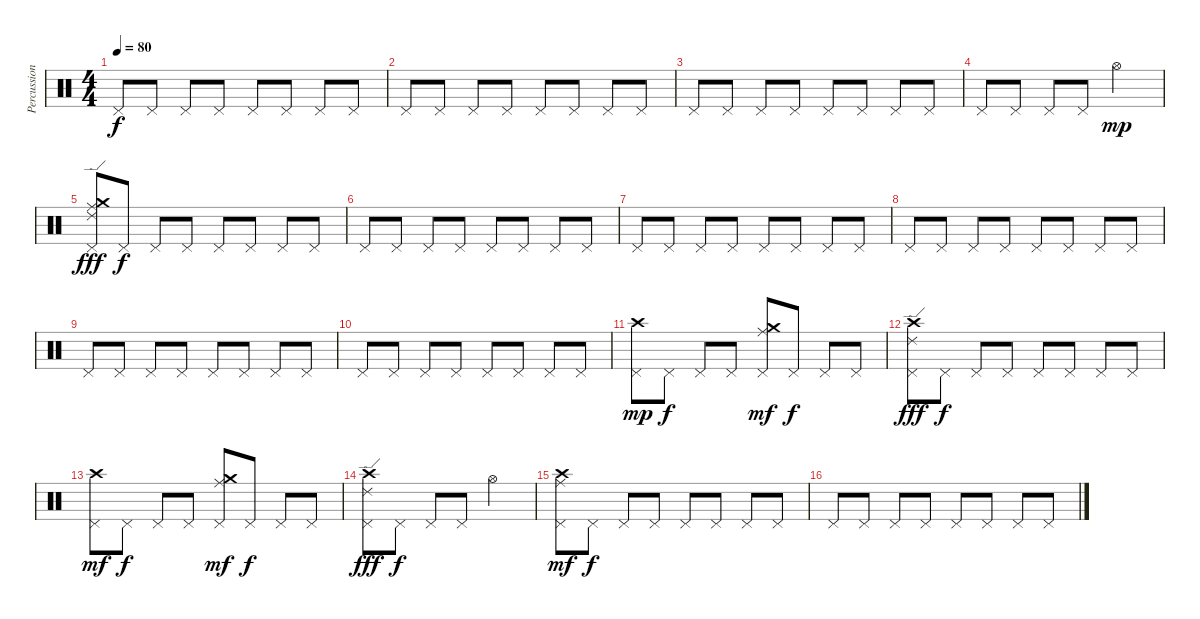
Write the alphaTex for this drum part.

\track ("Percussion" "Percussion") {instrument percussion}
\staff {score}
\articulation defaults
\ts (4 4)
\tempo 80
\clef neutral
\ks c "Pedal Hi-Hat (hit)".8{dy f} "Pedal Hi-Hat (hit)".8 "Pedal Hi-Hat (hit)".8 "Pedal Hi-Hat (hit)".8 "Pedal Hi-Hat (hit)".8 "Pedal Hi-Hat (hit)".8 "Pedal Hi-Hat (hit)".8 "Pedal Hi-Hat (hit)".8
|
"Pedal Hi-Hat (hit)".8 "Pedal Hi-Hat (hit)".8 "Pedal Hi-Hat (hit)".8 "Pedal Hi-Hat (hit)".8 "Pedal Hi-Hat (hit)".8 "Pedal Hi-Hat (hit)".8 "Pedal Hi-Hat (hit)".8 "Pedal Hi-Hat (hit)".8 |
"Pedal Hi-Hat (hit)".8 "Pedal Hi-Hat (hit)".8 "Pedal Hi-Hat (hit)".8 "Pedal Hi-Hat (hit)".8 "Pedal Hi-Hat (hit)".8 "Pedal Hi-Hat (hit)".8 "Pedal Hi-Hat (hit)".8 "Pedal Hi-Hat (hit)".8 |
"Pedal Hi-Hat (hit)".8 "Pedal Hi-Hat (hit)".8 "Pedal Hi-Hat (hit)".8 "Pedal Hi-Hat (hit)".8 "Hi-Hat (open)".2{dy mp} |
("Crash medium (hit)" "Ride (middle)" "Ride (edge) 2" "Pedal Hi-Hat (hit)").8{dy fff} "Pedal Hi-Hat (hit)".8{dy f} "Pedal Hi-Hat (hit)".8 "Pedal Hi-Hat (hit)".8 "Pedal Hi-Hat (hit)".8 "Pedal Hi-Hat (hit)".8 "Pedal Hi-Hat (hit)".8 "Pedal Hi-Hat (hit)".8 |
"Pedal Hi-Hat (hit)".8 "Pedal Hi-Hat (hit)".8 "Pedal Hi-Hat (hit)".8 "Pedal Hi-Hat (hit)".8 "Pedal Hi-Hat (hit)".8 "Pedal Hi-Hat (hit)".8 "Pedal Hi-Hat (hit)".8 "Pedal Hi-Hat (hit)".8 |
"Pedal Hi-Hat (hit)".8 "Pedal Hi-Hat (hit)".8 "Pedal Hi-Hat (hit)".8 "Pedal Hi-Hat (hit)".8 "Pedal Hi-Hat (hit)".8 "Pedal Hi-Hat (hit)".8 "Pedal Hi-Hat (hit)".8 "Pedal Hi-Hat (hit)".8 |
"Pedal Hi-Hat (hit)".8 "Pedal Hi-Hat (hit)".8 "Pedal Hi-Hat (hit)".8 "Pedal Hi-Hat (hit)".8 "Pedal Hi-Hat (hit)".8 "Pedal Hi-Hat (hit)".8 "Pedal Hi-Hat (hit)".8 "Pedal Hi-Hat (hit)".8 |
"Pedal Hi-Hat (hit)".8 "Pedal Hi-Hat (hit)".8 "Pedal Hi-Hat (hit)".8 "Pedal Hi-Hat (hit)".8 "Pedal Hi-Hat (hit)".8 "Pedal Hi-Hat (hit)".8 "Pedal Hi-Hat (hit)".8 "Pedal Hi-Hat (hit)".8 |
"Pedal Hi-Hat (hit)".8 "Pedal Hi-Hat (hit)".8 "Pedal Hi-Hat (hit)".8 "Pedal Hi-Hat (hit)".8 "Pedal Hi-Hat (hit)".8 "Pedal Hi-Hat (hit)".8 "Pedal Hi-Hat (hit)".8 "Pedal Hi-Hat (hit)".8 |
("Crash high (hit)" "Pedal Hi-Hat (hit)").8{dy mp} "Pedal Hi-Hat (hit)".8{dy f} "Pedal Hi-Hat (hit)".8 "Pedal Hi-Hat (hit)".8 ("Ride (middle)" "Crash medium (hit)" "Pedal Hi-Hat (hit)").8{dy mf} "Pedal Hi-Hat (hit)".8{dy f} "Pedal Hi-Hat (hit)".8 "Pedal Hi-Hat (hit)".8 |
("Crash high (hit)" "Ride (edge) 2" "Pedal Hi-Hat (hit)").8{dy fff} "Pedal Hi-Hat (hit)".8{dy f} "Pedal Hi-Hat (hit)".8 "Pedal Hi-Hat (hit)".8 "Pedal Hi-Hat (hit)".8 "Pedal Hi-Hat (hit)".8 "Pedal Hi-Hat (hit)".8 "Pedal Hi-Hat (hit)".8 |
("Crash high (hit)" "Pedal Hi-Hat (hit)").8{dy mf} "Pedal Hi-Hat (hit)".8{dy f} "Pedal Hi-Hat (hit)".8 "Pedal Hi-Hat (hit)".8 ("Ride (middle)" "Crash medium (hit)" "Pedal Hi-Hat (hit)").8{dy mf} "Pedal Hi-Hat (hit)".8{dy f} "Pedal Hi-Hat (hit)".8 "Pedal Hi-Hat (hit)".8 |
("Crash high (hit)" "Ride (edge) 2" "Pedal Hi-Hat (hit)").8{dy fff} "Pedal Hi-Hat (hit)".8{dy f} "Pedal Hi-Hat (hit)".8 "Pedal Hi-Hat (hit)".8 "Hi-Hat (open)".2 |
("Ride (middle)" "Crash high (hit)" "Pedal Hi-Hat (hit)").8{dy mf} "Pedal Hi-Hat (hit)".8{dy f} "Pedal Hi-Hat (hit)".8 "Pedal Hi-Hat (hit)".8 "Pedal Hi-Hat (hit)".8 "Pedal Hi-Hat (hit)".8 "Pedal Hi-Hat (hit)".8 "Pedal Hi-Hat (hit)".8 |
"Pedal Hi-Hat (hit)".8 "Pedal Hi-Hat (hit)".8 "Pedal Hi-Hat (hit)".8 "Pedal Hi-Hat (hit)".8 "Pedal Hi-Hat (hit)".8 "Pedal Hi-Hat (hit)".8 "Pedal Hi-Hat (hit)".8 "Pedal Hi-Hat (hit)".8
